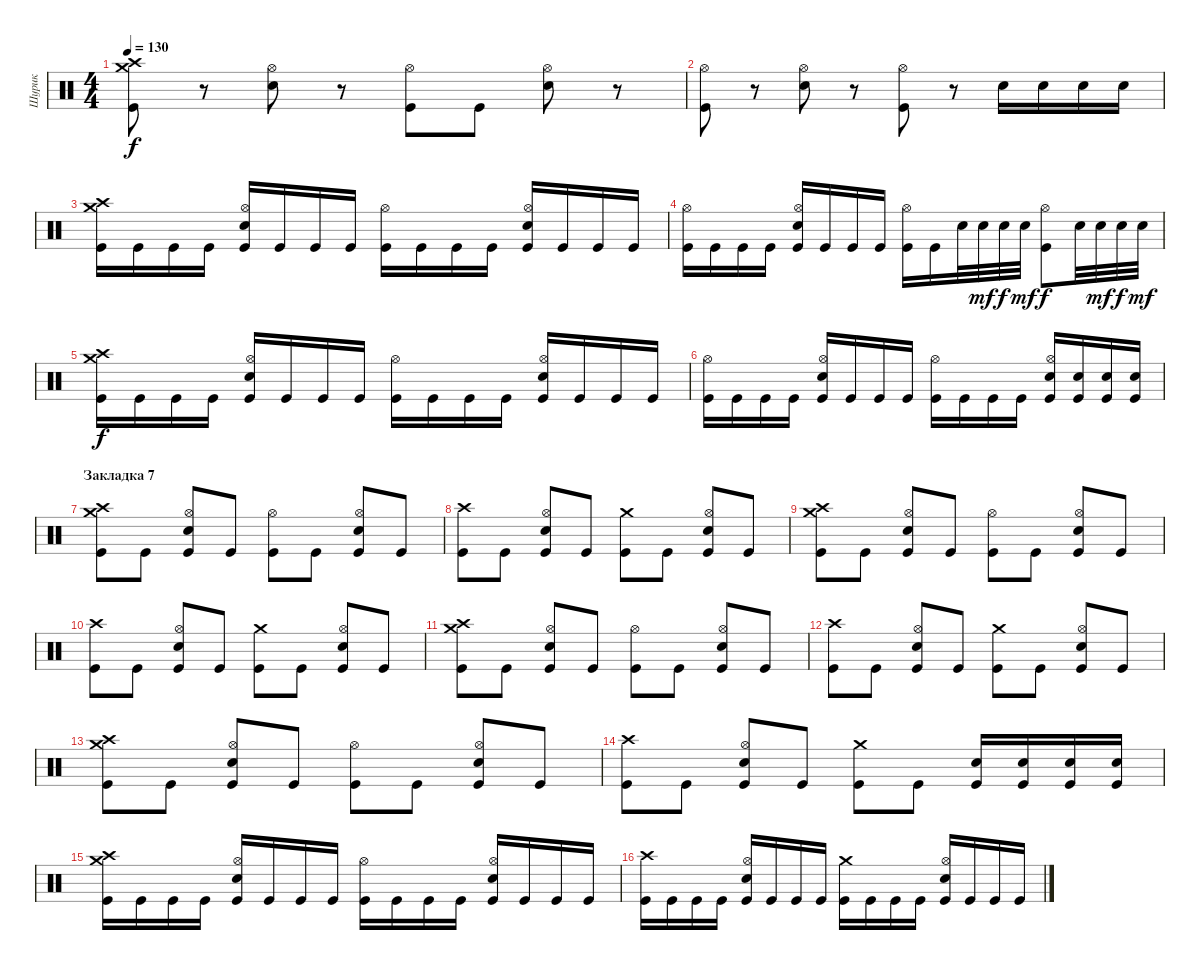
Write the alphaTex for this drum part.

\track ("Шурик" "Шурик") {instrument percussion}
\staff {score}
\articulation defaults
\ts (4 4)
\tempo 130
\clef neutral
\ks c
("Crash medium (hit)" "Crash high (hit)" "Kick (hit)").8{dy f} r.8 ("Hi-Hat (open)" "Electric Snare (hit)").8 r.8 ("Hi-Hat (open)" "Kick (hit)").8 "Kick (hit)".8 ("Hi-Hat (open)" "Electric Snare (hit)").8 r.8 |
("Hi-Hat (open)" "Kick (hit)").8 r.8 ("Hi-Hat (open)" "Electric Snare (hit)").8 r.8 ("Hi-Hat (open)" "Kick (hit)").8 r.8 "Electric Snare (hit)".16 "Electric Snare (hit)".16 "Electric Snare (hit)".16 "Electric Snare (hit)".16 |
("Crash medium (hit)" "Crash high (hit)" "Kick (hit)").16 "Kick (hit)".16 "Kick (hit)".16 "Kick (hit)".16 ("Hi-Hat (open)" "Electric Snare (hit)" "Kick (hit)").16 "Kick (hit)".16 "Kick (hit)".16 "Kick (hit)".16 ("Hi-Hat (open)" "Kick (hit)").16 "Kick (hit)".16 "Kick (hit)".16 "Kick (hit)".16 ("Hi-Hat (open)" "Electric Snare (hit)" "Kick (hit)").16 "Kick (hit)".16 "Kick (hit)".16 "Kick (hit)".16 |
("Hi-Hat (open)" "Kick (hit)").16 "Kick (hit)".16 "Kick (hit)".16 "Kick (hit)".16 ("Hi-Hat (open)" "Electric Snare (hit)" "Kick (hit)").16 "Kick (hit)".16 "Kick (hit)".16 "Kick (hit)".16 ("Hi-Hat (open)" "Kick (hit)").16 "Kick (hit)".16 "Electric Snare (hit)".32 "Electric Snare (hit)".32{dy mf} "Electric Snare (hit)".32{dy f} "Electric Snare (hit)".32{dy mf} ("Hi-Hat (open)" "Kick (hit)").8{dy f} "Electric Snare (hit)".32 "Electric Snare (hit)".32{dy mf} "Electric Snare (hit)".32{dy f} "Electric Snare (hit)".32{dy mf} |
("Crash medium (hit)" "Crash high (hit)" "Kick (hit)").16{dy f} "Kick (hit)".16 "Kick (hit)".16 "Kick (hit)".16 ("Hi-Hat (open)" "Electric Snare (hit)" "Kick (hit)").16 "Kick (hit)".16 "Kick (hit)".16 "Kick (hit)".16 ("Hi-Hat (open)" "Kick (hit)").16 "Kick (hit)".16 "Kick (hit)".16 "Kick (hit)".16 ("Hi-Hat (open)" "Electric Snare (hit)" "Kick (hit)").16 "Kick (hit)".16 "Kick (hit)".16 "Kick (hit)".16 |
("Hi-Hat (open)" "Kick (hit)").16 "Kick (hit)".16 "Kick (hit)".16 "Kick (hit)".16 ("Hi-Hat (open)" "Electric Snare (hit)" "Kick (hit)").16 "Kick (hit)".16 "Kick (hit)".16 "Kick (hit)".16 ("Hi-Hat (open)" "Kick (hit)").16 "Kick (hit)".16 "Kick (hit)".16 "Kick (hit)".16 ("Hi-Hat (open)" "Electric Snare (hit)" "Kick (hit)").16 ("Electric Snare (hit)" "Kick (hit)").16 ("Electric Snare (hit)" "Kick (hit)").16 ("Electric Snare (hit)" "Kick (hit)").16 |
\section ("" "Закладка 7")
("Crash medium (hit)" "Crash high (hit)" "Kick (hit)").8 "Kick (hit)".8 ("Hi-Hat (open)" "Electric Snare (hit)" "Kick (hit)").8 "Kick (hit)".8 ("Hi-Hat (open)" "Kick (hit)").8 "Kick (hit)".8 ("Hi-Hat (open)" "Electric Snare (hit)" "Kick (hit)").8 "Kick (hit)".8 |
("Crash high (hit)" "Kick (hit)").8 "Kick (hit)".8 ("Hi-Hat (open)" "Electric Snare (hit)" "Kick (hit)").8 "Kick (hit)".8 ("Crash medium (hit)" "Kick (hit)").8 "Kick (hit)".8 ("Hi-Hat (open)" "Electric Snare (hit)" "Kick (hit)").8 "Kick (hit)".8 |
("Crash medium (hit)" "Crash high (hit)" "Kick (hit)").8 "Kick (hit)".8 ("Hi-Hat (open)" "Electric Snare (hit)" "Kick (hit)").8 "Kick (hit)".8 ("Hi-Hat (open)" "Kick (hit)").8 "Kick (hit)".8 ("Hi-Hat (open)" "Electric Snare (hit)" "Kick (hit)").8 "Kick (hit)".8 |
("Crash high (hit)" "Kick (hit)").8 "Kick (hit)".8 ("Hi-Hat (open)" "Electric Snare (hit)" "Kick (hit)").8 "Kick (hit)".8 ("Crash medium (hit)" "Kick (hit)").8 "Kick (hit)".8 ("Hi-Hat (open)" "Electric Snare (hit)" "Kick (hit)").8 "Kick (hit)".8 |
("Crash medium (hit)" "Crash high (hit)" "Kick (hit)").8 "Kick (hit)".8 ("Hi-Hat (open)" "Electric Snare (hit)" "Kick (hit)").8 "Kick (hit)".8 ("Hi-Hat (open)" "Kick (hit)").8 "Kick (hit)".8 ("Hi-Hat (open)" "Electric Snare (hit)" "Kick (hit)").8 "Kick (hit)".8 |
("Crash high (hit)" "Kick (hit)").8 "Kick (hit)".8 ("Hi-Hat (open)" "Electric Snare (hit)" "Kick (hit)").8 "Kick (hit)".8 ("Crash medium (hit)" "Kick (hit)").8 "Kick (hit)".8 ("Hi-Hat (open)" "Electric Snare (hit)" "Kick (hit)").8 "Kick (hit)".8 |
("Crash medium (hit)" "Crash high (hit)" "Kick (hit)").8 "Kick (hit)".8 ("Hi-Hat (open)" "Electric Snare (hit)" "Kick (hit)").8 "Kick (hit)".8 ("Hi-Hat (open)" "Kick (hit)").8 "Kick (hit)".8 ("Hi-Hat (open)" "Electric Snare (hit)" "Kick (hit)").8 "Kick (hit)".8 |
("Crash high (hit)" "Kick (hit)").8 "Kick (hit)".8 ("Hi-Hat (open)" "Electric Snare (hit)" "Kick (hit)").8 "Kick (hit)".8 ("Crash medium (hit)" "Kick (hit)").8 "Kick (hit)".8 ("Electric Snare (hit)" "Kick (hit)").16 ("Electric Snare (hit)" "Kick (hit)").16 ("Electric Snare (hit)" "Kick (hit)").16 ("Electric Snare (hit)" "Kick (hit)").16 |
("Crash medium (hit)" "Crash high (hit)" "Kick (hit)").16 "Kick (hit)".16 "Kick (hit)".16 "Kick (hit)".16 ("Hi-Hat (open)" "Electric Snare (hit)" "Kick (hit)").16 "Kick (hit)".16 "Kick (hit)".16 "Kick (hit)".16 ("Hi-Hat (open)" "Kick (hit)").16 "Kick (hit)".16 "Kick (hit)".16 "Kick (hit)".16 ("Hi-Hat (open)" "Electric Snare (hit)" "Kick (hit)").16 "Kick (hit)".16 "Kick (hit)".16 "Kick (hit)".16 |
("Crash high (hit)" "Kick (hit)").16 "Kick (hit)".16 "Kick (hit)".16 "Kick (hit)".16 ("Hi-Hat (open)" "Electric Snare (hit)" "Kick (hit)").16 "Kick (hit)".16 "Kick (hit)".16 "Kick (hit)".16 ("Crash medium (hit)" "Kick (hit)").16 "Kick (hit)".16 "Kick (hit)".16 "Kick (hit)".16 ("Hi-Hat (open)" "Electric Snare (hit)" "Kick (hit)").16 "Kick (hit)".16 "Kick (hit)".16 "Kick (hit)".16
